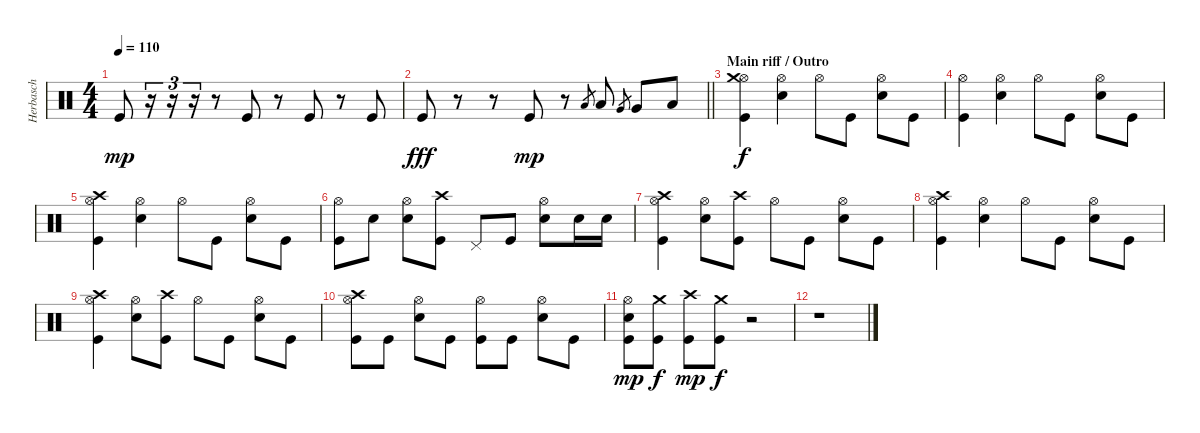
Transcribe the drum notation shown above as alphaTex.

\track ("Herbasch" "Herbasch") {instrument percussion}
\staff {score}
\articulation defaults
\ts (4 4)
\tempo 110
\clef neutral
\ks c "Kick (hit)".8{dy mp}
r.16{tu (3 2)} r.16{tu (3 2)} r.16{tu (3 2)} r.8 "Kick (hit)".8 r.8 "Kick (hit)".8 r.8 "Kick (hit)".8 |
\barLineRight lightlight "Kick (hit)".8{dy fff}
r.8 r.8 "Kick (hit)".8{dy mp} r.8 "Low Tom (hit)".8{gr} "Low Tom (hit)".8 "Very Low Tom (hit)".8{gr} "Very Low Tom (hit)".8 "Low Floor Tom (hit)".8 |
\section ("" "Main riff / Outro")
("Hi-Hat (open)" "Kick (hit)" "Crash medium (hit)").4{dy f} ("Hi-Hat (open)" "Electric Snare (hit)").4 "Hi-Hat (open)".8 "Kick (hit)".8 ("Hi-Hat (open)" "Electric Snare (hit)").8 "Kick (hit)".8 |
("Hi-Hat (open)" "Kick (hit)").4 ("Hi-Hat (open)" "Electric Snare (hit)").4 "Hi-Hat (open)".8 "Kick (hit)".8 ("Hi-Hat (open)" "Electric Snare (hit)").8 "Kick (hit)".8 |
("Hi-Hat (open)" "Kick (hit)" "Crash high (hit)").4 ("Hi-Hat (open)" "Electric Snare (hit)").4 "Hi-Hat (open)".8 "Kick (hit)".8 ("Hi-Hat (open)" "Electric Snare (hit)").8 "Kick (hit)".8 |
("Hi-Hat (open)" "Kick (hit)").8 "Electric Snare (hit)".8 ("Hi-Hat (open)" "Electric Snare (hit)").8 ("Kick (hit)" "Crash high (hit)").8 "Pedal Hi-Hat (hit)".8 "Kick (hit)".8 ("Hi-Hat (open)" "Electric Snare (hit)").8 "Electric Snare (hit)".16 "Electric Snare (hit)".16 |
("Hi-Hat (open)" "Kick (hit)" "Crash high (hit)").4 ("Hi-Hat (open)" "Electric Snare (hit)").8 ("Kick (hit)" "Crash high (hit)").8 "Hi-Hat (open)".8 "Kick (hit)".8 ("Hi-Hat (open)" "Electric Snare (hit)").8 "Kick (hit)".8 |
("Hi-Hat (open)" "Kick (hit)" "Crash high (hit)").4 ("Hi-Hat (open)" "Electric Snare (hit)").4 "Hi-Hat (open)".8 "Kick (hit)".8 ("Hi-Hat (open)" "Electric Snare (hit)").8 "Kick (hit)".8 |
("Hi-Hat (open)" "Kick (hit)" "Crash high (hit)").4 ("Hi-Hat (open)" "Electric Snare (hit)").8 ("Kick (hit)" "Crash high (hit)").8 "Hi-Hat (open)".8 "Kick (hit)".8 ("Hi-Hat (open)" "Electric Snare (hit)").8 "Kick (hit)".8 |
("Hi-Hat (open)" "Kick (hit)" "Crash high (hit)").8 "Kick (hit)".8 ("Hi-Hat (open)" "Electric Snare (hit)").8 "Kick (hit)".8 ("Hi-Hat (open)" "Kick (hit)").8 "Kick (hit)".8 ("Hi-Hat (open)" "Electric Snare (hit)").8 "Kick (hit)".8 |
("Hi-Hat (open)" "Electric Snare (hit)" "Kick (hit)").8{dy mp} ("Crash medium (hit)" "Kick (hit)").8{dy f} ("Kick (hit)" "Crash high (hit)").8{dy mp} ("Crash medium (hit)" "Kick (hit)").8{dy f} r.2 |
r.1
